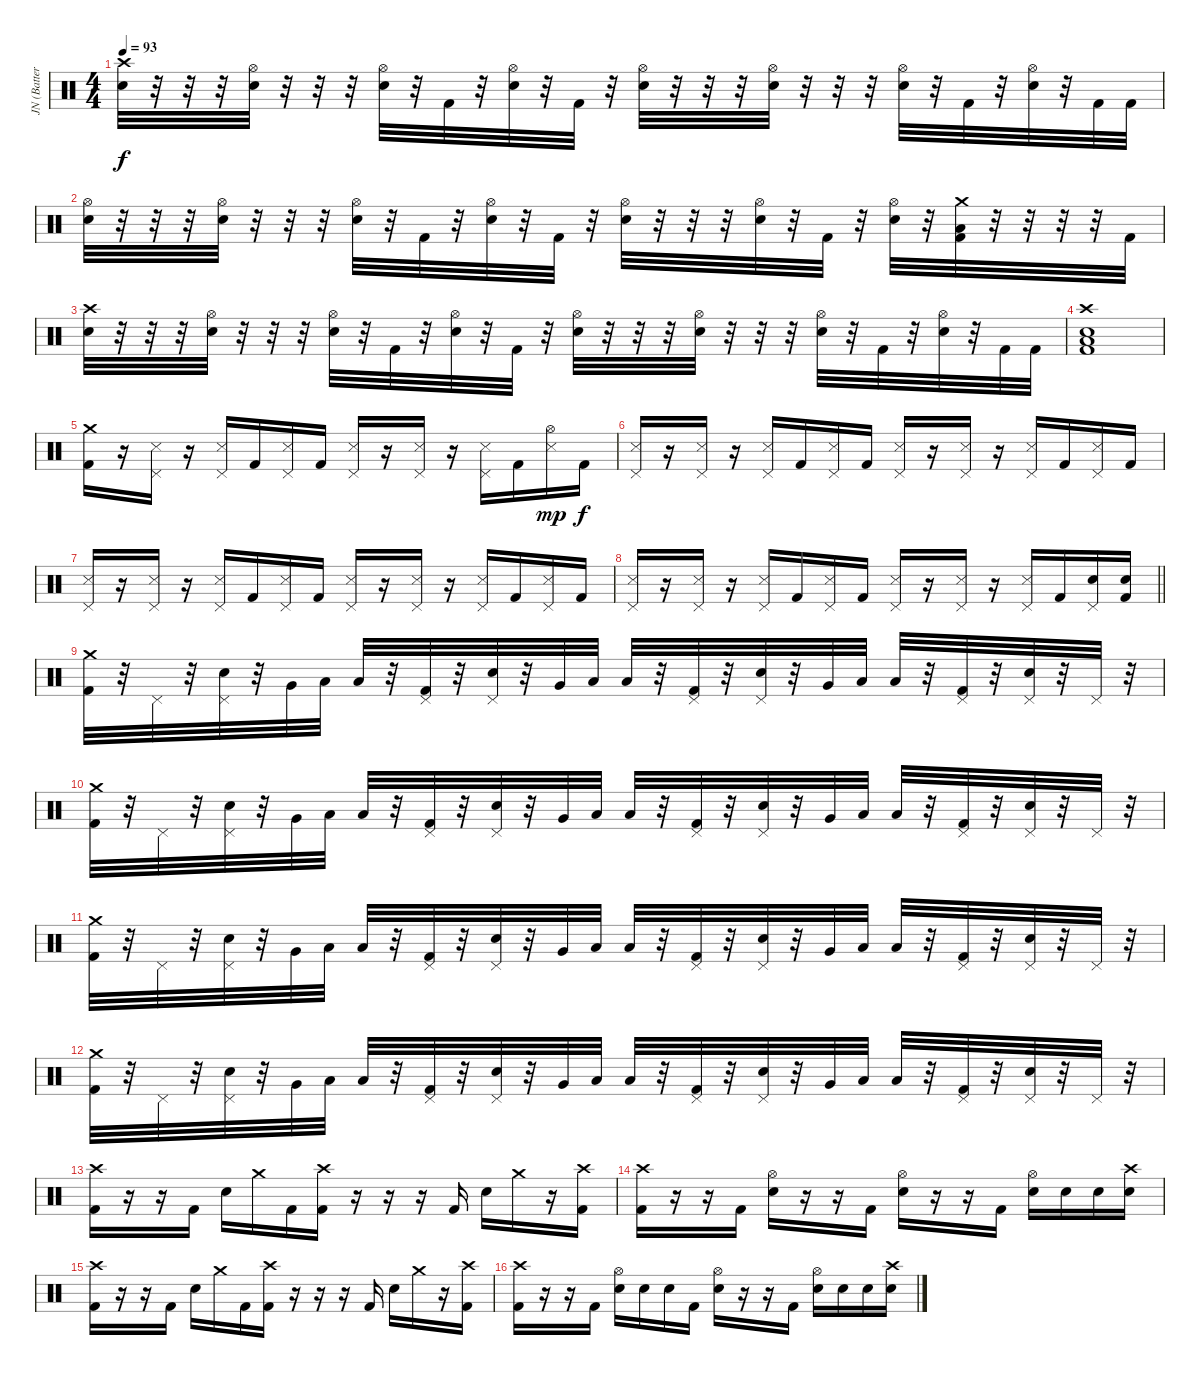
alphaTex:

\track ("JN (Batterie)" "JN (Batter") {instrument percussion}
\staff {score}
\articulation defaults
\ts (4 4)
\tempo 93
\clef neutral
\ks c
("Crash high (hit)" "Electric Snare (hit)").32{dy f} r.32 r.32 r.32 ("Hi-Hat (open)" "Electric Snare (hit)").32 r.32 r.32 r.32 ("Hi-Hat (open)" "Electric Snare (hit)").32 r.32 "Kick (hit) 2".32 r.32 ("Hi-Hat (open)" "Electric Snare (hit)").32 r.32 "Kick (hit) 2".32 r.32 ("Hi-Hat (open)" "Electric Snare (hit)").32 r.32 r.32 r.32 ("Hi-Hat (open)" "Electric Snare (hit)").32 r.32 r.32 r.32 ("Hi-Hat (open)" "Electric Snare (hit)").32 r.32 "Kick (hit) 2".32 r.32 ("Hi-Hat (open)" "Electric Snare (hit)").32 r.32 "Kick (hit) 2".32 "Kick (hit) 2".32 |
("Hi-Hat (open)" "Electric Snare (hit)").32 r.32 r.32 r.32 ("Hi-Hat (open)" "Electric Snare (hit)").32 r.32 r.32 r.32 ("Hi-Hat (open)" "Electric Snare (hit)").32 r.32 "Kick (hit) 2".32 r.32 ("Hi-Hat (open)" "Electric Snare (hit)").32 r.32 "Kick (hit) 2".32 r.32 ("Hi-Hat (open)" "Electric Snare (hit)").32 r.32 r.32 r.32 ("Hi-Hat (open)" "Electric Snare (hit)").32 r.32 "Kick (hit) 2".32 r.32 ("Hi-Hat (open)" "Electric Snare (hit)").32 r.32 ("Crash medium (hit)" "Low Tom (hit)" "Kick (hit) 2").32 r.32 r.32 r.32 r.32 "Kick (hit) 2".32 |
("Crash high (hit)" "Electric Snare (hit)").32 r.32 r.32 r.32 ("Hi-Hat (open)" "Electric Snare (hit)").32 r.32 r.32 r.32 ("Hi-Hat (open)" "Electric Snare (hit)").32 r.32 "Kick (hit) 2".32 r.32 ("Hi-Hat (open)" "Electric Snare (hit)").32 r.32 "Kick (hit) 2".32 r.32 ("Hi-Hat (open)" "Electric Snare (hit)").32 r.32 r.32 r.32 ("Hi-Hat (open)" "Electric Snare (hit)").32 r.32 r.32 r.32 ("Hi-Hat (open)" "Electric Snare (hit)").32 r.32 "Kick (hit) 2".32 r.32 ("Hi-Hat (open)" "Electric Snare (hit)").32 r.32 "Kick (hit) 2".32 "Kick (hit) 2".32 |
("Crash high (hit)" "Low Tom (hit)" "Electric Snare (hit)" "Kick (hit) 2").1 |
("Crash medium (hit)" "Kick (hit) 2").16 r.16 ("Pedal Hi-Hat (hit)" "Snare (side stick) 3").16 r.16 ("Pedal Hi-Hat (hit)" "Snare (side stick) 3").16 "Kick (hit) 2".16 ("Pedal Hi-Hat (hit)" "Snare (side stick) 3").16 "Kick (hit) 2".16 ("Pedal Hi-Hat (hit)" "Snare (side stick) 3").16 r.16 ("Pedal Hi-Hat (hit)" "Snare (side stick) 3").16 r.16 ("Pedal Hi-Hat (hit)" "Snare (side stick) 3").16 "Kick (hit) 2".16 ("Hi-Hat (open)" "Snare (side stick) 3").16{dy mp} "Kick (hit) 2".16{dy f} |
("Pedal Hi-Hat (hit)" "Snare (side stick) 3").16 r.16 ("Pedal Hi-Hat (hit)" "Snare (side stick) 3").16 r.16 ("Pedal Hi-Hat (hit)" "Snare (side stick) 3").16 "Kick (hit) 2".16 ("Pedal Hi-Hat (hit)" "Snare (side stick) 3").16 "Kick (hit) 2".16 ("Pedal Hi-Hat (hit)" "Snare (side stick) 3").16 r.16 ("Pedal Hi-Hat (hit)" "Snare (side stick) 3").16 r.16 ("Pedal Hi-Hat (hit)" "Snare (side stick) 3").16 "Kick (hit) 2".16 ("Pedal Hi-Hat (hit)" "Snare (side stick) 3").16 "Kick (hit) 2".16 |
("Pedal Hi-Hat (hit)" "Snare (side stick) 3").16 r.16 ("Pedal Hi-Hat (hit)" "Snare (side stick) 3").16 r.16 ("Pedal Hi-Hat (hit)" "Snare (side stick) 3").16 "Kick (hit) 2".16 ("Pedal Hi-Hat (hit)" "Snare (side stick) 3").16 "Kick (hit) 2".16 ("Pedal Hi-Hat (hit)" "Snare (side stick) 3").16 r.16 ("Pedal Hi-Hat (hit)" "Snare (side stick) 3").16 r.16 ("Pedal Hi-Hat (hit)" "Snare (side stick) 3").16 "Kick (hit) 2".16 ("Pedal Hi-Hat (hit)" "Snare (side stick) 3").16 "Kick (hit) 2".16 |
\barLineRight lightlight
("Pedal Hi-Hat (hit)" "Snare (side stick) 3").16 r.16 ("Pedal Hi-Hat (hit)" "Snare (side stick) 3").16 r.16 ("Pedal Hi-Hat (hit)" "Snare (side stick) 3").16 "Kick (hit) 2".16 ("Pedal Hi-Hat (hit)" "Snare (side stick) 3").16 "Kick (hit) 2".16 ("Pedal Hi-Hat (hit)" "Snare (side stick) 3").16 r.16 ("Pedal Hi-Hat (hit)" "Snare (side stick) 3").16 r.16 ("Pedal Hi-Hat (hit)" "Snare (side stick) 3").16 "Kick (hit) 2".16 ("Pedal Hi-Hat (hit)" "Electric Snare (hit)").16 ("Electric Snare (hit)" "Kick (hit) 2").16 |
("Crash medium (hit)" "Kick (hit) 2").32 r.32 "Pedal Hi-Hat (hit)".32 r.32 ("Pedal Hi-Hat (hit)" "Electric Snare (hit)").32 r.32 "Very Low Tom (hit)".32 "Low Tom (hit)".32 "Low Floor Tom (hit)".32 r.32 ("Pedal Hi-Hat (hit)" "Kick (hit) 2").32 r.32 ("Pedal Hi-Hat (hit)" "Electric Snare (hit)").32 r.32 "Very Low Tom (hit)".32 "Low Tom (hit)".32 "Low Floor Tom (hit)".32 r.32 ("Pedal Hi-Hat (hit)" "Kick (hit) 2").32 r.32 ("Pedal Hi-Hat (hit)" "Electric Snare (hit)").32 r.32 "Very Low Tom (hit)".32 "Low Tom (hit)".32 "Low Floor Tom (hit)".32 r.32 ("Pedal Hi-Hat (hit)" "Kick (hit) 2").32 r.32 ("Pedal Hi-Hat (hit)" "Electric Snare (hit)").32 r.32 "Pedal Hi-Hat (hit)".32 r.32 |
("Crash medium (hit)" "Kick (hit) 2").32 r.32 "Pedal Hi-Hat (hit)".32 r.32 ("Pedal Hi-Hat (hit)" "Electric Snare (hit)").32 r.32 "Very Low Tom (hit)".32 "Low Tom (hit)".32 "Low Floor Tom (hit)".32 r.32 ("Pedal Hi-Hat (hit)" "Kick (hit) 2").32 r.32 ("Pedal Hi-Hat (hit)" "Electric Snare (hit)").32 r.32 "Very Low Tom (hit)".32 "Low Tom (hit)".32 "Low Floor Tom (hit)".32 r.32 ("Pedal Hi-Hat (hit)" "Kick (hit) 2").32 r.32 ("Pedal Hi-Hat (hit)" "Electric Snare (hit)").32 r.32 "Very Low Tom (hit)".32 "Low Tom (hit)".32 "Low Floor Tom (hit)".32 r.32 ("Pedal Hi-Hat (hit)" "Kick (hit) 2").32 r.32 ("Pedal Hi-Hat (hit)" "Electric Snare (hit)").32 r.32 "Pedal Hi-Hat (hit)".32 r.32 |
("Crash medium (hit)" "Kick (hit) 2").32 r.32 "Pedal Hi-Hat (hit)".32 r.32 ("Pedal Hi-Hat (hit)" "Electric Snare (hit)").32 r.32 "Very Low Tom (hit)".32 "Low Tom (hit)".32 "Low Floor Tom (hit)".32 r.32 ("Pedal Hi-Hat (hit)" "Kick (hit) 2").32 r.32 ("Pedal Hi-Hat (hit)" "Electric Snare (hit)").32 r.32 "Very Low Tom (hit)".32 "Low Tom (hit)".32 "Low Floor Tom (hit)".32 r.32 ("Pedal Hi-Hat (hit)" "Kick (hit) 2").32 r.32 ("Pedal Hi-Hat (hit)" "Electric Snare (hit)").32 r.32 "Very Low Tom (hit)".32 "Low Tom (hit)".32 "Low Floor Tom (hit)".32 r.32 ("Pedal Hi-Hat (hit)" "Kick (hit) 2").32 r.32 ("Pedal Hi-Hat (hit)" "Electric Snare (hit)").32 r.32 "Pedal Hi-Hat (hit)".32 r.32 |
("Crash medium (hit)" "Kick (hit) 2").32 r.32 "Pedal Hi-Hat (hit)".32 r.32 ("Pedal Hi-Hat (hit)" "Electric Snare (hit)").32 r.32 "Very Low Tom (hit)".32 "Low Tom (hit)".32 "Low Floor Tom (hit)".32 r.32 ("Pedal Hi-Hat (hit)" "Kick (hit) 2").32 r.32 ("Pedal Hi-Hat (hit)" "Electric Snare (hit)").32 r.32 "Very Low Tom (hit)".32 "Low Tom (hit)".32 "Low Floor Tom (hit)".32 r.32 ("Pedal Hi-Hat (hit)" "Kick (hit) 2").32 r.32 ("Pedal Hi-Hat (hit)" "Electric Snare (hit)").32 r.32 "Very Low Tom (hit)".32 "Low Tom (hit)".32 "Low Floor Tom (hit)".32 r.32 ("Pedal Hi-Hat (hit)" "Kick (hit) 2").32 r.32 ("Pedal Hi-Hat (hit)" "Electric Snare (hit)").32 r.32 "Pedal Hi-Hat (hit)".32 r.32 |
("Crash high (hit)" "Kick (hit) 2").16 r.16 r.16 "Kick (hit) 2".16 "Electric Snare (hit)".16 "Crash medium (hit)".16 "Kick (hit) 2".16 ("Crash high (hit)" "Kick (hit) 2").16 r.16 r.16 r.16 "Kick (hit) 2".16 "Electric Snare (hit)".16 "Crash medium (hit)".16 r.16 ("Crash high (hit)" "Kick (hit) 2").16 |
("Crash high (hit)" "Kick (hit) 2").16 r.16 r.16 "Kick (hit) 2".16 ("Hi-Hat (open)" "Electric Snare (hit)").16 r.16 r.16 "Kick (hit) 2".16 ("Hi-Hat (open)" "Electric Snare (hit)").16 r.16 r.16 "Kick (hit) 2".16 ("Hi-Hat (open)" "Electric Snare (hit)").16 "Electric Snare (hit)".16 "Electric Snare (hit)".16 ("Crash high (hit)" "Electric Snare (hit)").16 |
("Crash high (hit)" "Kick (hit) 2").16 r.16 r.16 "Kick (hit) 2".16 "Electric Snare (hit)".16 "Crash medium (hit)".16 "Kick (hit) 2".16 ("Crash high (hit)" "Kick (hit) 2").16 r.16 r.16 r.16 "Kick (hit) 2".16 "Electric Snare (hit)".16 "Crash medium (hit)".16 r.16 ("Crash high (hit)" "Kick (hit) 2").16 |
("Crash high (hit)" "Kick (hit) 2").16 r.16 r.16 "Kick (hit) 2".16 ("Hi-Hat (open)" "Electric Snare (hit)").16 "Electric Snare (hit)".16 "Electric Snare (hit)".16 "Kick (hit) 2".16 ("Hi-Hat (open)" "Electric Snare (hit)").16 r.16 r.16 "Kick (hit) 2".16 ("Hi-Hat (open)" "Electric Snare (hit)").16 "Electric Snare (hit)".16 "Electric Snare (hit)".16 ("Crash high (hit)" "Electric Snare (hit)").16
